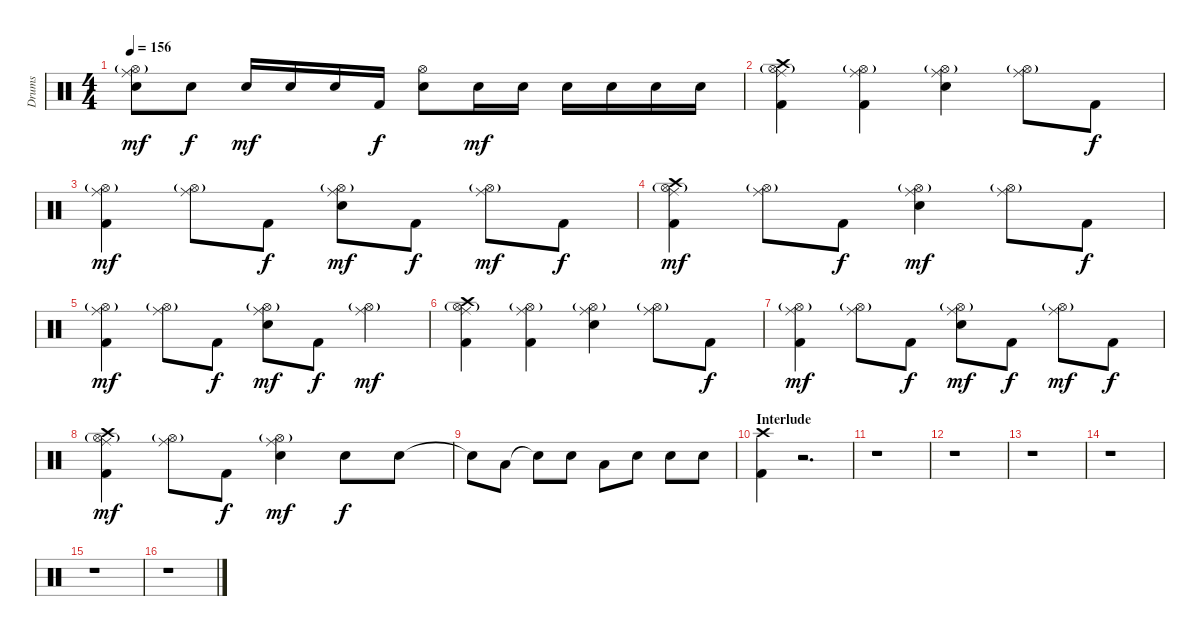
\track ("Drums" "Drums") {instrument percussion}
\staff {score}
\articulation defaults
\ts (4 4)
\tempo 156
\clef neutral
\ks c
("Ride (middle)" "Hi-Hat (open)"{g} "Electric Snare (hit)").8{dy mf} "Electric Snare (hit)".8{dy f} "Electric Snare (hit)".16{dy mf} "Electric Snare (hit)".16 "Electric Snare (hit)".16 "Kick (hit) 2".16{dy f} ("Hi-Hat (open)" "Electric Snare (hit)").8 "Electric Snare (hit)".16{dy mf} "Electric Snare (hit)".16 "Electric Snare (hit)".16 "Electric Snare (hit)".16 "Electric Snare (hit)".16 "Electric Snare (hit)".16 |
("Crash high (hit)" "Ride (middle)" "Hi-Hat (open)"{g} "Kick (hit) 2").4 ("Ride (middle)" "Hi-Hat (open)"{g} "Kick (hit) 2").4 ("Ride (middle)" "Hi-Hat (open)"{g} "Electric Snare (hit)").4 ("Ride (middle)" "Hi-Hat (open)"{g}).8 "Kick (hit) 2".8{dy f} |
("Ride (middle)" "Hi-Hat (open)"{g} "Kick (hit) 2").4{dy mf} ("Ride (middle)" "Hi-Hat (open)"{g}).8 "Kick (hit) 2".8{dy f} ("Ride (middle)" "Hi-Hat (open)"{g} "Electric Snare (hit)").8{dy mf} "Kick (hit) 2".8{dy f} ("Ride (middle)" "Hi-Hat (open)"{g}).8{dy mf} "Kick (hit) 2".8{dy f} |
("Crash high (hit)" "Ride (middle)" "Hi-Hat (open)"{g} "Kick (hit) 2").4{dy mf} ("Ride (middle)" "Hi-Hat (open)"{g}).8 "Kick (hit) 2".8{dy f} ("Ride (middle)" "Hi-Hat (open)"{g} "Electric Snare (hit)").4{dy mf} ("Ride (middle)" "Hi-Hat (open)"{g}).8 "Kick (hit) 2".8{dy f} |
("Ride (middle)" "Hi-Hat (open)"{g} "Kick (hit) 2").4{dy mf} ("Ride (middle)" "Hi-Hat (open)"{g}).8 "Kick (hit) 2".8{dy f} ("Ride (middle)" "Hi-Hat (open)"{g} "Electric Snare (hit)").8{dy mf} "Kick (hit) 2".8{dy f} ("Ride (middle)" "Hi-Hat (open)"{g}).4{dy mf} |
("Crash high (hit)" "Ride (middle)" "Hi-Hat (open)"{g} "Kick (hit) 2").4 ("Ride (middle)" "Hi-Hat (open)"{g} "Kick (hit) 2").4 ("Ride (middle)" "Hi-Hat (open)"{g} "Electric Snare (hit)").4 ("Ride (middle)" "Hi-Hat (open)"{g}).8 "Kick (hit) 2".8{dy f} |
("Ride (middle)" "Hi-Hat (open)"{g} "Kick (hit) 2").4{dy mf} ("Ride (middle)" "Hi-Hat (open)"{g}).8 "Kick (hit) 2".8{dy f} ("Ride (middle)" "Hi-Hat (open)"{g} "Electric Snare (hit)").8{dy mf} "Kick (hit) 2".8{dy f} ("Ride (middle)" "Hi-Hat (open)"{g}).8{dy mf} "Kick (hit) 2".8{dy f} |
("Crash high (hit)" "Ride (middle)" "Hi-Hat (open)"{g} "Kick (hit) 2").4{dy mf} ("Ride (middle)" "Hi-Hat (open)"{g}).8 "Kick (hit) 2".8{dy f} ("Ride (middle)" "Hi-Hat (open)"{g} "Electric Snare (hit)").4{dy mf} "Electric Snare (hit)".8{dy f} "Electric Snare (hit)".8 |
"Snare (hit)"{t}.8 "Low Tom (hit)".8 "Snare (hit)"{t}.8 "Electric Snare (hit)".8 "Low Tom (hit)".8 "Electric Snare (hit)".8 "Electric Snare (hit)".8 "Electric Snare (hit)".8 |
\section ("" "Interlude")
("Crash high (hit)" "Kick (hit) 2").4 r.2{d} |
r.1 |
r.1 |
r.1 |
r.1 |
r.1 |
r.1
